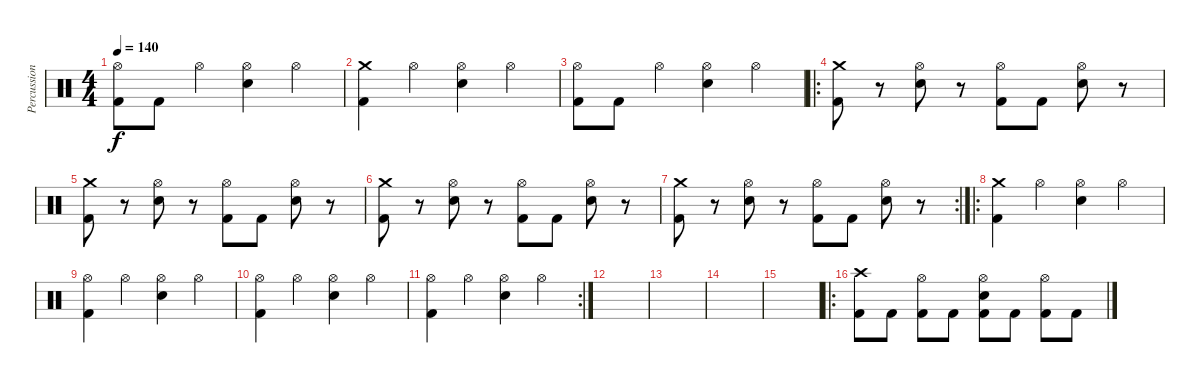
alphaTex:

\track ("Percussion" "Percussion") {instrument percussion}
\staff {score}
\articulation defaults
\ts (4 4)
\tempo 140
\clef neutral
\ks c
("Hi-Hat (open)" "Kick (hit) 2").8{dy f} "Kick (hit) 2".8 "Hi-Hat (open)".4 ("Hi-Hat (open)" "Electric Snare (hit)").4 "Hi-Hat (open)".4 |
("Crash medium (hit)" "Kick (hit) 2").4 "Hi-Hat (open)".4 ("Hi-Hat (open)" "Electric Snare (hit)").4 "Hi-Hat (open)".4 |
("Hi-Hat (open)" "Kick (hit) 2").8 "Kick (hit) 2".8 "Hi-Hat (open)".4 ("Hi-Hat (open)" "Electric Snare (hit)").4 "Hi-Hat (open)".4 |
\ro
("Crash medium (hit)" "Kick (hit) 2").8 r.8 ("Hi-Hat (open)" "Electric Snare (hit)").8 r.8 ("Hi-Hat (open)" "Kick (hit) 2").8 "Kick (hit) 2".8 ("Hi-Hat (open)" "Electric Snare (hit)").8 r.8 |
("Crash medium (hit)" "Kick (hit) 2").8 r.8 ("Hi-Hat (open)" "Electric Snare (hit)").8 r.8 ("Hi-Hat (open)" "Kick (hit) 2").8 "Kick (hit) 2".8 ("Hi-Hat (open)" "Electric Snare (hit)").8 r.8 |
("Crash medium (hit)" "Kick (hit) 2").8 r.8 ("Hi-Hat (open)" "Electric Snare (hit)").8 r.8 ("Hi-Hat (open)" "Kick (hit) 2").8 "Kick (hit) 2".8 ("Hi-Hat (open)" "Electric Snare (hit)").8 r.8 |
\rc 2
("Crash medium (hit)" "Kick (hit) 2").8 r.8 ("Hi-Hat (open)" "Electric Snare (hit)").8 r.8 ("Hi-Hat (open)" "Kick (hit) 2").8 "Kick (hit) 2".8 ("Hi-Hat (open)" "Electric Snare (hit)").8 r.8 |
\ro
("Crash medium (hit)" "Kick (hit) 2").4 "Hi-Hat (open)".4 ("Hi-Hat (open)" "Electric Snare (hit)").4 "Hi-Hat (open)".4 |
("Hi-Hat (open)" "Kick (hit) 2").4 "Hi-Hat (open)".4 ("Hi-Hat (open)" "Electric Snare (hit)").4 "Hi-Hat (open)".4 |
("Hi-Hat (open)" "Kick (hit) 2").4 "Hi-Hat (open)".4 ("Hi-Hat (open)" "Electric Snare (hit)").4 "Hi-Hat (open)".4 |
\rc 2
("Hi-Hat (open)" "Kick (hit) 2").4 "Hi-Hat (open)".4 ("Hi-Hat (open)" "Electric Snare (hit)").4 "Hi-Hat (open)".4 |
|
|
|
|
\ro
("Crash high (hit)" "Kick (hit) 2").8 "Kick (hit) 2".8 ("Hi-Hat (open)" "Kick (hit) 2").8 "Kick (hit) 2".8 ("Hi-Hat (open)" "Electric Snare (hit)" "Kick (hit) 2").8 "Kick (hit) 2".8 ("Hi-Hat (open)" "Kick (hit) 2").8 "Kick (hit) 2".8
